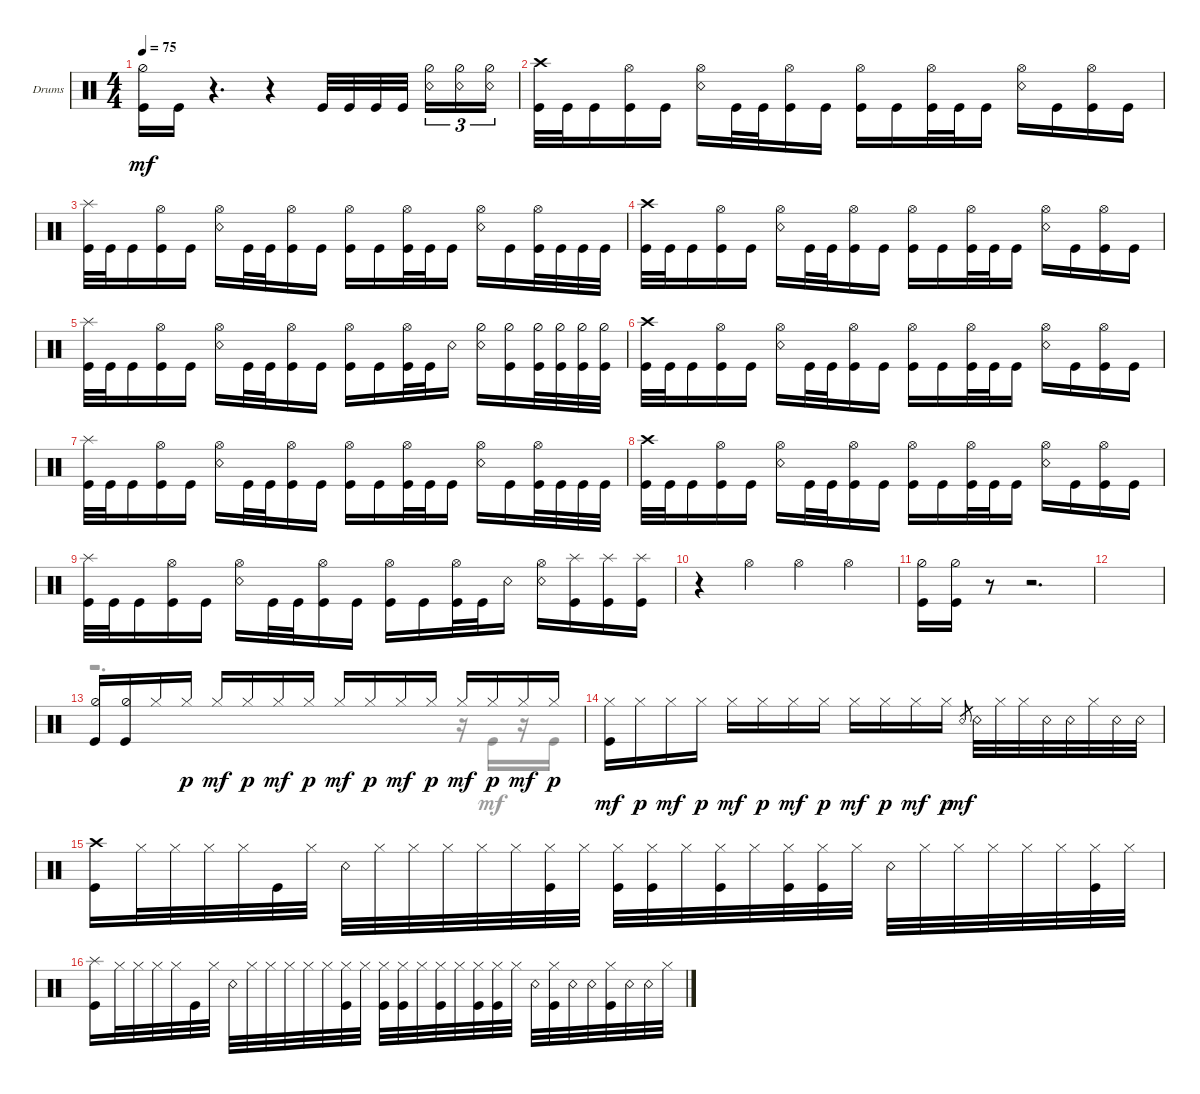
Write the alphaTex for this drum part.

\defaultSystemsLayout 4
\bracketExtendMode groupsimilarinstruments
\firstSystemTrackNameOrientation horizontal
\otherSystemsTrackNameOrientation horizontal
\track ("Drumkit" "Drums") {instrument percussion}
\staff {score}
\articulation defaults
\voice
\ts (4 4)
\tempo 75
\clef neutral
\ks c
("Kick (hit)" "Hi-Hat (half)").16{dy mf} "Kick (hit)".16 r.4{d} r.4 "Kick (hit)".32 "Kick (hit)".32 "Kick (hit)".32 "Kick (hit)".32 ("Snare (rim shot)" "Hi-Hat (half)").16{tu (3 2)} ("Snare (rim shot)" "Hi-Hat (half)").16{tu (3 2)} ("Snare (rim shot)" "Hi-Hat (half)").16{tu (3 2)} |
("Kick (hit)" "Crash high (hit)").32 "Kick (hit)".32 "Kick (hit)".16 ("Kick (hit)" "Hi-Hat (open)").16 "Kick (hit)".16 ("Snare (rim shot)" "Hi-Hat (open)").16 "Kick (hit)".32 "Kick (hit)".32 ("Kick (hit)" "Hi-Hat (open)").16 "Kick (hit)".16 ("Kick (hit)" "Hi-Hat (open)").16 "Kick (hit)".16 ("Kick (hit)" "Hi-Hat (open)").32 "Kick (hit)".32 "Kick (hit)".16 ("Snare (rim shot)" "Hi-Hat (open)").16 "Kick (hit)".16 ("Kick (hit)" "Hi-Hat (open)").16 "Kick (hit)".16 |
("Kick (hit)" "Splash (hit)").32 "Kick (hit)".32 "Kick (hit)".16 ("Kick (hit)" "Hi-Hat (open)").16 "Kick (hit)".16 ("Snare (rim shot)" "Hi-Hat (open)").16 "Kick (hit)".32 "Kick (hit)".32 ("Kick (hit)" "Hi-Hat (open)").16 "Kick (hit)".16 ("Kick (hit)" "Hi-Hat (open)").16 "Kick (hit)".16 ("Kick (hit)" "Hi-Hat (open)").32 "Kick (hit)".32 "Kick (hit)".16 ("Snare (rim shot)" "Hi-Hat (open)").16 "Kick (hit)".16 ("Kick (hit)" "Hi-Hat (open)").32 "Kick (hit)".32 "Kick (hit)".32 "Kick (hit)".32 |
("Kick (hit)" "Crash high (hit)").32 "Kick (hit)".32 "Kick (hit)".16 ("Kick (hit)" "Hi-Hat (open)").16 "Kick (hit)".16 ("Snare (rim shot)" "Hi-Hat (open)").16 "Kick (hit)".32 "Kick (hit)".32 ("Kick (hit)" "Hi-Hat (open)").16 "Kick (hit)".16 ("Kick (hit)" "Hi-Hat (open)").16 "Kick (hit)".16 ("Kick (hit)" "Hi-Hat (open)").32 "Kick (hit)".32 "Kick (hit)".16 ("Snare (rim shot)" "Hi-Hat (open)").16 "Kick (hit)".16 ("Kick (hit)" "Hi-Hat (open)").16 "Kick (hit)".16 |
("Kick (hit)" "Splash (hit)").32 "Kick (hit)".32 "Kick (hit)".16 ("Kick (hit)" "Hi-Hat (open)").16 "Kick (hit)".16 ("Snare (rim shot)" "Hi-Hat (open)").16 "Kick (hit)".32 "Kick (hit)".32 ("Kick (hit)" "Hi-Hat (open)").16 "Kick (hit)".16 ("Kick (hit)" "Hi-Hat (open)").16 "Kick (hit)".16 ("Kick (hit)" "Hi-Hat (open)").32 "Kick (hit)".32 "Snare (rim shot)".16 ("Snare (rim shot)" "Hi-Hat (half)").16 ("Kick (hit)" "Hi-Hat (half)").16 ("Kick (hit)" "Hi-Hat (half)").32 ("Kick (hit)" "Hi-Hat (half)").32 ("Kick (hit)" "Hi-Hat (half)").32 ("Kick (hit)" "Hi-Hat (half)").32 |
("Kick (hit)" "Crash high (hit)").32 "Kick (hit)".32 "Kick (hit)".16 ("Kick (hit)" "Hi-Hat (open)").16 "Kick (hit)".16 ("Snare (rim shot)" "Hi-Hat (open)").16 "Kick (hit)".32 "Kick (hit)".32 ("Kick (hit)" "Hi-Hat (open)").16 "Kick (hit)".16 ("Kick (hit)" "Hi-Hat (open)").16 "Kick (hit)".16 ("Kick (hit)" "Hi-Hat (open)").32 "Kick (hit)".32 "Kick (hit)".16 ("Snare (rim shot)" "Hi-Hat (open)").16 "Kick (hit)".16 ("Kick (hit)" "Hi-Hat (open)").16 "Kick (hit)".16 |
("Kick (hit)" "Splash (hit)").32 "Kick (hit)".32 "Kick (hit)".16 ("Kick (hit)" "Hi-Hat (open)").16 "Kick (hit)".16 ("Snare (rim shot)" "Hi-Hat (open)").16 "Kick (hit)".32 "Kick (hit)".32 ("Kick (hit)" "Hi-Hat (open)").16 "Kick (hit)".16 ("Kick (hit)" "Hi-Hat (open)").16 "Kick (hit)".16 ("Kick (hit)" "Hi-Hat (open)").32 "Kick (hit)".32 "Kick (hit)".16 ("Snare (rim shot)" "Hi-Hat (open)").16 "Kick (hit)".16 ("Kick (hit)" "Hi-Hat (open)").32 "Kick (hit)".32 "Kick (hit)".32 "Kick (hit)".32 |
("Kick (hit)" "Crash high (hit)").32 "Kick (hit)".32 "Kick (hit)".16 ("Kick (hit)" "Hi-Hat (open)").16 "Kick (hit)".16 ("Snare (rim shot)" "Hi-Hat (open)").16 "Kick (hit)".32 "Kick (hit)".32 ("Kick (hit)" "Hi-Hat (open)").16 "Kick (hit)".16 ("Kick (hit)" "Hi-Hat (open)").16 "Kick (hit)".16 ("Kick (hit)" "Hi-Hat (open)").32 "Kick (hit)".32 "Kick (hit)".16 ("Snare (rim shot)" "Hi-Hat (open)").16 "Kick (hit)".16 ("Kick (hit)" "Hi-Hat (open)").16 "Kick (hit)".16 |
("Kick (hit)" "Splash (hit)").32 "Kick (hit)".32 "Kick (hit)".16 ("Kick (hit)" "Hi-Hat (open)").16 "Kick (hit)".16 ("Snare (rim shot)" "Hi-Hat (open)").16 "Kick (hit)".32 "Kick (hit)".32 ("Kick (hit)" "Hi-Hat (open)").16 "Kick (hit)".16 ("Kick (hit)" "Hi-Hat (open)").16 "Kick (hit)".16 ("Kick (hit)" "Hi-Hat (open)").32 "Kick (hit)".32 "Snare (rim shot)".16 ("Snare (rim shot)" "Hi-Hat (open)").16 ("Kick (hit)" "Splash (hit)").16 ("Kick (hit)" "Splash (hit)").16 ("Kick (hit)" "Splash (hit)").16 |
r.4 "Hi-Hat (open)".4 "Hi-Hat (open)".4 "Hi-Hat (open)".4 |
("Kick (hit)" "Hi-Hat (half)").16 ("Kick (hit)" "Hi-Hat (half)").16 r.8 r.2{d} |
|
("Kick (hit)" "Hi-Hat (half)").16 ("Kick (hit)" "Hi-Hat (half)").16 "Hi-Hat (closed)".16 "Hi-Hat (closed)".16{dy p} "Hi-Hat (closed)".16{dy mf} "Hi-Hat (closed)".16{dy p} "Hi-Hat (closed)".16{dy mf} "Hi-Hat (closed)".16{dy p} "Hi-Hat (closed)".16{dy mf} "Hi-Hat (closed)".16{dy p} "Hi-Hat (closed)".16{dy mf} "Hi-Hat (closed)".16{dy p} "Hi-Hat (closed)".16{dy mf} "Hi-Hat (closed)".16{dy p} "Hi-Hat (closed)".16{dy mf} "Hi-Hat (closed)".16{dy p} |
("Hi-Hat (closed)" "Kick (hit)").16{dy mf} "Hi-Hat (closed)".16{dy p} "Hi-Hat (closed)".16{dy mf} "Hi-Hat (closed)".16{dy p} "Hi-Hat (closed)".16{dy mf} "Hi-Hat (closed)".16{dy p} "Hi-Hat (closed)".16{dy mf} "Hi-Hat (closed)".16{dy p} "Hi-Hat (closed)".16{dy mf} "Hi-Hat (closed)".16{dy p} "Hi-Hat (closed)".16{dy mf} "Hi-Hat (closed)".16{dy p} "Snare (rim shot)".8{gr dy mf} "Snare (rim shot)".32 "Hi-Hat (closed)".32 "Hi-Hat (closed)".32 "Snare (rim shot)".32 "Snare (rim shot)".32 "Hi-Hat (closed)".32 "Snare (rim shot)".32 "Snare (rim shot)".32 |
("Crash high (hit)" "Kick (hit)").16 "Hi-Hat (closed)".32 "Hi-Hat (closed)".32 "Hi-Hat (closed)".32 "Hi-Hat (closed)".32 "Kick (hit)".32 "Hi-Hat (closed)".32 "Snare (rim shot)".32 "Hi-Hat (closed)".32 "Hi-Hat (closed)".32 "Hi-Hat (closed)".32 "Hi-Hat (closed)".32 "Hi-Hat (closed)".32 ("Hi-Hat (closed)" "Kick (hit)").32 "Hi-Hat (closed)".32 ("Hi-Hat (closed)" "Kick (hit)").32 ("Hi-Hat (closed)" "Kick (hit)").32 "Hi-Hat (closed)".32 ("Hi-Hat (closed)" "Kick (hit)").32 "Hi-Hat (closed)".32 ("Hi-Hat (closed)" "Kick (hit)").32 ("Hi-Hat (closed)" "Kick (hit)").32 "Hi-Hat (closed)".32 "Snare (rim shot)".32 "Hi-Hat (closed)".32 "Hi-Hat (closed)".32 "Hi-Hat (closed)".32 "Hi-Hat (closed)".32 "Hi-Hat (closed)".32 ("Hi-Hat (closed)" "Kick (hit)").32 "Hi-Hat (closed)".32 |
("Kick (hit)" "Splash (hit)").16 "Hi-Hat (closed)".32 "Hi-Hat (closed)".32 "Hi-Hat (closed)".32 "Hi-Hat (closed)".32 "Kick (hit)".32 "Hi-Hat (closed)".32 "Snare (rim shot)".32 "Hi-Hat (closed)".32 "Hi-Hat (closed)".32 "Hi-Hat (closed)".32 "Hi-Hat (closed)".32 "Hi-Hat (closed)".32 ("Hi-Hat (closed)" "Kick (hit)").32 "Hi-Hat (closed)".32 ("Hi-Hat (closed)" "Kick (hit)").32 ("Hi-Hat (closed)" "Kick (hit)").32 "Hi-Hat (closed)".32 ("Hi-Hat (closed)" "Kick (hit)").32 "Hi-Hat (closed)".32 ("Hi-Hat (closed)" "Kick (hit)").32 ("Hi-Hat (closed)" "Kick (hit)").32 "Hi-Hat (closed)".32 "Snare (rim shot)".32 ("Hi-Hat (closed)" "Kick (hit)").32 "Snare (rim shot)".32 "Snare (rim shot)".32 ("Hi-Hat (closed)" "Kick (hit)").32 "Snare (rim shot)".32 "Snare (rim shot)".32 "Hi-Hat (closed)".32
\voice
\clef neutral
\ottava regular
\simile none
\ks c
|
|
|
|
|
|
|
|
|
|
|
|
r.2{d} r.16 "Kick (hit)".16 r.16 "Kick (hit)".16 |
|
|
